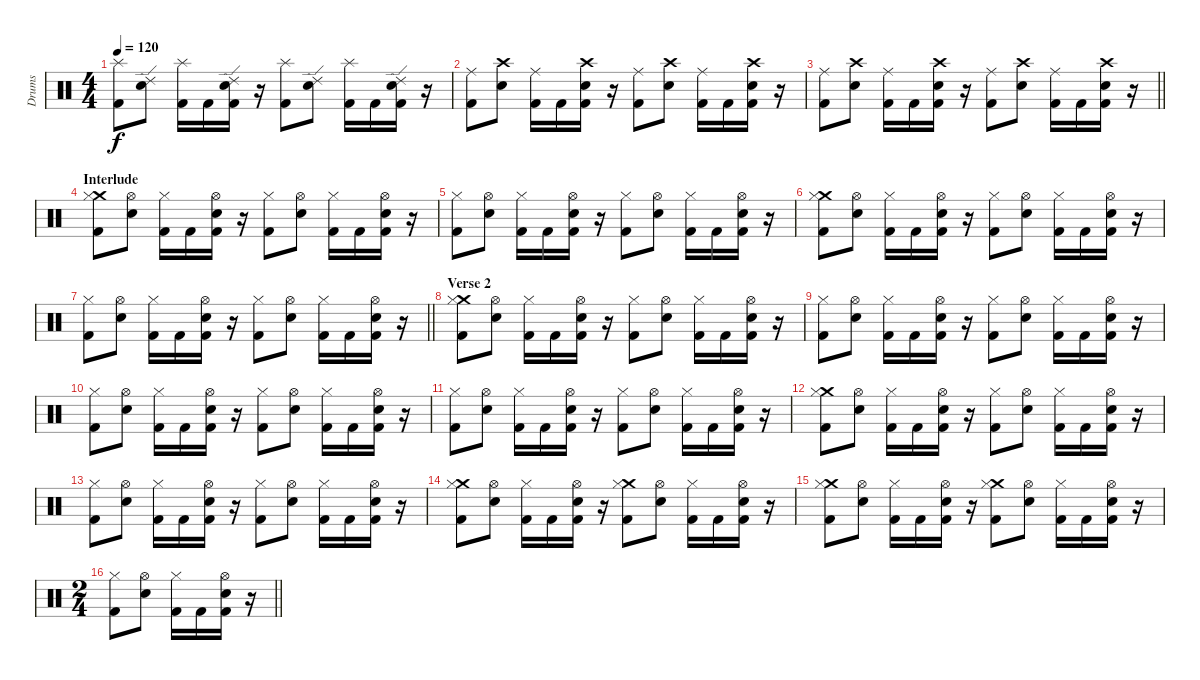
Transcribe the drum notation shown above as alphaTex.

\track ("Drums" "Drums") {instrument percussion}
\staff {score}
\articulation defaults
\ts (4 4)
\tempo 120
\clef neutral
\ks c
("Kick (hit) 2" "Splash (hit)").8{dy f} ("Snare (hit) 2" "Ride (edge) 2").8 ("Kick (hit) 2" "Splash (hit)").16 "Kick (hit) 2".16 ("Kick (hit) 2" "Snare (hit) 2" "Ride (edge) 2").16 r.16 ("Kick (hit) 2" "Splash (hit)").8 ("Snare (hit) 2" "Ride (edge) 2").8 ("Kick (hit) 2" "Splash (hit)").16 "Kick (hit) 2".16 ("Kick (hit) 2" "Snare (hit) 2" "Ride (edge) 2").16 r.16 |
("Kick (hit) 2" "Ride (middle)").8 ("Snare (hit) 2" "Crash high (hit)").8 ("Kick (hit) 2" "Ride (middle)").16 "Kick (hit) 2".16 ("Kick (hit) 2" "Snare (hit) 2" "Crash high (hit)").16 r.16 ("Kick (hit) 2" "Ride (middle)").8 ("Snare (hit) 2" "Crash high (hit)").8 ("Kick (hit) 2" "Ride (middle)").16 "Kick (hit) 2".16 ("Kick (hit) 2" "Snare (hit) 2" "Crash high (hit)").16 r.16 |
\barLineRight lightlight
("Kick (hit) 2" "Ride (middle)").8 ("Snare (hit) 2" "Crash high (hit)").8 ("Kick (hit) 2" "Ride (middle)").16 "Kick (hit) 2".16 ("Kick (hit) 2" "Snare (hit) 2" "Crash high (hit)").16 r.16 ("Kick (hit) 2" "Ride (middle)").8 ("Snare (hit) 2" "Crash high (hit)").8 ("Kick (hit) 2" "Ride (middle)").16 "Kick (hit) 2".16 ("Kick (hit) 2" "Snare (hit) 2" "Crash high (hit)").16 r.16 |
\section ("" "Interlude")
("Kick (hit) 2" "Crash medium (hit)" "Hi-Hat (closed)").8 ("Snare (hit) 2" "Hi-Hat (open)").8 ("Kick (hit) 2" "Hi-Hat (closed)").16 "Kick (hit) 2".16 ("Kick (hit) 2" "Snare (hit) 2" "Hi-Hat (open)").16 r.16 ("Kick (hit) 2" "Hi-Hat (closed)").8 ("Snare (hit) 2" "Hi-Hat (open)").8 ("Kick (hit) 2" "Hi-Hat (closed)").16 "Kick (hit) 2".16 ("Kick (hit) 2" "Snare (hit) 2" "Hi-Hat (open)").16 r.16 |
("Kick (hit) 2" "Hi-Hat (closed)").8 ("Snare (hit) 2" "Hi-Hat (open)").8 ("Kick (hit) 2" "Hi-Hat (closed)").16 "Kick (hit) 2".16 ("Kick (hit) 2" "Snare (hit) 2" "Hi-Hat (open)").16 r.16 ("Kick (hit) 2" "Hi-Hat (closed)").8 ("Snare (hit) 2" "Hi-Hat (open)").8 ("Kick (hit) 2" "Hi-Hat (closed)").16 "Kick (hit) 2".16 ("Kick (hit) 2" "Snare (hit) 2" "Hi-Hat (open)").16 r.16 |
("Kick (hit) 2" "Crash medium (hit)" "Hi-Hat (closed)").8 ("Snare (hit) 2" "Hi-Hat (open)").8 ("Kick (hit) 2" "Hi-Hat (closed)").16 "Kick (hit) 2".16 ("Kick (hit) 2" "Snare (hit) 2" "Hi-Hat (open)").16 r.16 ("Kick (hit) 2" "Hi-Hat (closed)").8 ("Snare (hit) 2" "Hi-Hat (open)").8 ("Kick (hit) 2" "Hi-Hat (closed)").16 "Kick (hit) 2".16 ("Kick (hit) 2" "Snare (hit) 2" "Hi-Hat (open)").16 r.16 |
\barLineRight lightlight
("Kick (hit) 2" "Hi-Hat (closed)").8 ("Snare (hit) 2" "Hi-Hat (open)").8 ("Kick (hit) 2" "Hi-Hat (closed)").16 "Kick (hit) 2".16 ("Kick (hit) 2" "Snare (hit) 2" "Hi-Hat (open)").16 r.16 ("Kick (hit) 2" "Hi-Hat (closed)").8 ("Snare (hit) 2" "Hi-Hat (open)").8 ("Kick (hit) 2" "Hi-Hat (closed)").16 "Kick (hit) 2".16 ("Kick (hit) 2" "Snare (hit) 2" "Hi-Hat (open)").16 r.16 |
\section ("" "Verse 2")
("Kick (hit) 2" "Crash medium (hit)" "Hi-Hat (closed)").8 ("Snare (hit) 2" "Hi-Hat (open)").8 ("Kick (hit) 2" "Hi-Hat (closed)").16 "Kick (hit) 2".16 ("Kick (hit) 2" "Snare (hit) 2" "Hi-Hat (open)").16 r.16 ("Kick (hit) 2" "Hi-Hat (closed)").8 ("Snare (hit) 2" "Hi-Hat (open)").8 ("Kick (hit) 2" "Hi-Hat (closed)").16 "Kick (hit) 2".16 ("Kick (hit) 2" "Snare (hit) 2" "Hi-Hat (open)").16 r.16 |
("Kick (hit) 2" "Hi-Hat (closed)").8 ("Snare (hit) 2" "Hi-Hat (open)").8 ("Kick (hit) 2" "Hi-Hat (closed)").16 "Kick (hit) 2".16 ("Kick (hit) 2" "Snare (hit) 2" "Hi-Hat (open)").16 r.16 ("Kick (hit) 2" "Hi-Hat (closed)").8 ("Snare (hit) 2" "Hi-Hat (open)").8 ("Kick (hit) 2" "Hi-Hat (closed)").16 "Kick (hit) 2".16 ("Kick (hit) 2" "Snare (hit) 2" "Hi-Hat (open)").16 r.16 |
("Kick (hit) 2" "Hi-Hat (closed)").8 ("Snare (hit) 2" "Hi-Hat (open)").8 ("Kick (hit) 2" "Hi-Hat (closed)").16 "Kick (hit) 2".16 ("Kick (hit) 2" "Snare (hit) 2" "Hi-Hat (open)").16 r.16 ("Kick (hit) 2" "Hi-Hat (closed)").8 ("Snare (hit) 2" "Hi-Hat (open)").8 ("Kick (hit) 2" "Hi-Hat (closed)").16 "Kick (hit) 2".16 ("Kick (hit) 2" "Snare (hit) 2" "Hi-Hat (open)").16 r.16 |
("Kick (hit) 2" "Hi-Hat (closed)").8 ("Snare (hit) 2" "Hi-Hat (open)").8 ("Kick (hit) 2" "Hi-Hat (closed)").16 "Kick (hit) 2".16 ("Kick (hit) 2" "Snare (hit) 2" "Hi-Hat (open)").16 r.16 ("Kick (hit) 2" "Hi-Hat (closed)").8 ("Snare (hit) 2" "Hi-Hat (open)").8 ("Kick (hit) 2" "Hi-Hat (closed)").16 "Kick (hit) 2".16 ("Kick (hit) 2" "Snare (hit) 2" "Hi-Hat (open)").16 r.16 |
("Kick (hit) 2" "Crash medium (hit)" "Hi-Hat (closed)").8 ("Snare (hit) 2" "Hi-Hat (open)").8 ("Kick (hit) 2" "Hi-Hat (closed)").16 "Kick (hit) 2".16 ("Kick (hit) 2" "Snare (hit) 2" "Hi-Hat (open)").16 r.16 ("Kick (hit) 2" "Hi-Hat (closed)").8 ("Snare (hit) 2" "Hi-Hat (open)").8 ("Kick (hit) 2" "Hi-Hat (closed)").16 "Kick (hit) 2".16 ("Kick (hit) 2" "Snare (hit) 2" "Hi-Hat (open)").16 r.16 |
("Kick (hit) 2" "Hi-Hat (closed)").8 ("Snare (hit) 2" "Hi-Hat (open)").8 ("Kick (hit) 2" "Hi-Hat (closed)").16 "Kick (hit) 2".16 ("Kick (hit) 2" "Snare (hit) 2" "Hi-Hat (open)").16 r.16 ("Kick (hit) 2" "Hi-Hat (closed)").8 ("Snare (hit) 2" "Hi-Hat (open)").8 ("Kick (hit) 2" "Hi-Hat (closed)").16 "Kick (hit) 2".16 ("Kick (hit) 2" "Snare (hit) 2" "Hi-Hat (open)").16 r.16 |
("Kick (hit) 2" "Crash medium (hit)" "Hi-Hat (closed)").8 ("Snare (hit) 2" "Hi-Hat (open)").8 ("Kick (hit) 2" "Hi-Hat (closed)").16 "Kick (hit) 2".16 ("Kick (hit) 2" "Snare (hit) 2" "Hi-Hat (open)").16 r.16 ("Kick (hit) 2" "Crash medium (hit)" "Hi-Hat (closed)").8 ("Snare (hit) 2" "Hi-Hat (open)").8 ("Kick (hit) 2" "Hi-Hat (closed)").16 "Kick (hit) 2".16 ("Kick (hit) 2" "Snare (hit) 2" "Hi-Hat (open)").16 r.16 |
("Kick (hit) 2" "Crash medium (hit)" "Hi-Hat (closed)").8 ("Snare (hit) 2" "Hi-Hat (open)").8 ("Kick (hit) 2" "Hi-Hat (closed)").16 "Kick (hit) 2".16 ("Kick (hit) 2" "Snare (hit) 2" "Hi-Hat (open)").16 r.16 ("Kick (hit) 2" "Crash medium (hit)" "Hi-Hat (closed)").8 ("Snare (hit) 2" "Hi-Hat (open)").8 ("Kick (hit) 2" "Hi-Hat (closed)").16 "Kick (hit) 2".16 ("Kick (hit) 2" "Snare (hit) 2" "Hi-Hat (open)").16 r.16 |
\ts (2 4)
\barLineRight lightlight
("Kick (hit) 2" "Hi-Hat (closed)").8 ("Snare (hit) 2" "Hi-Hat (open)").8 ("Kick (hit) 2" "Hi-Hat (closed)").16 "Kick (hit) 2".16 ("Kick (hit) 2" "Snare (hit) 2" "Hi-Hat (open)").16 r.16
